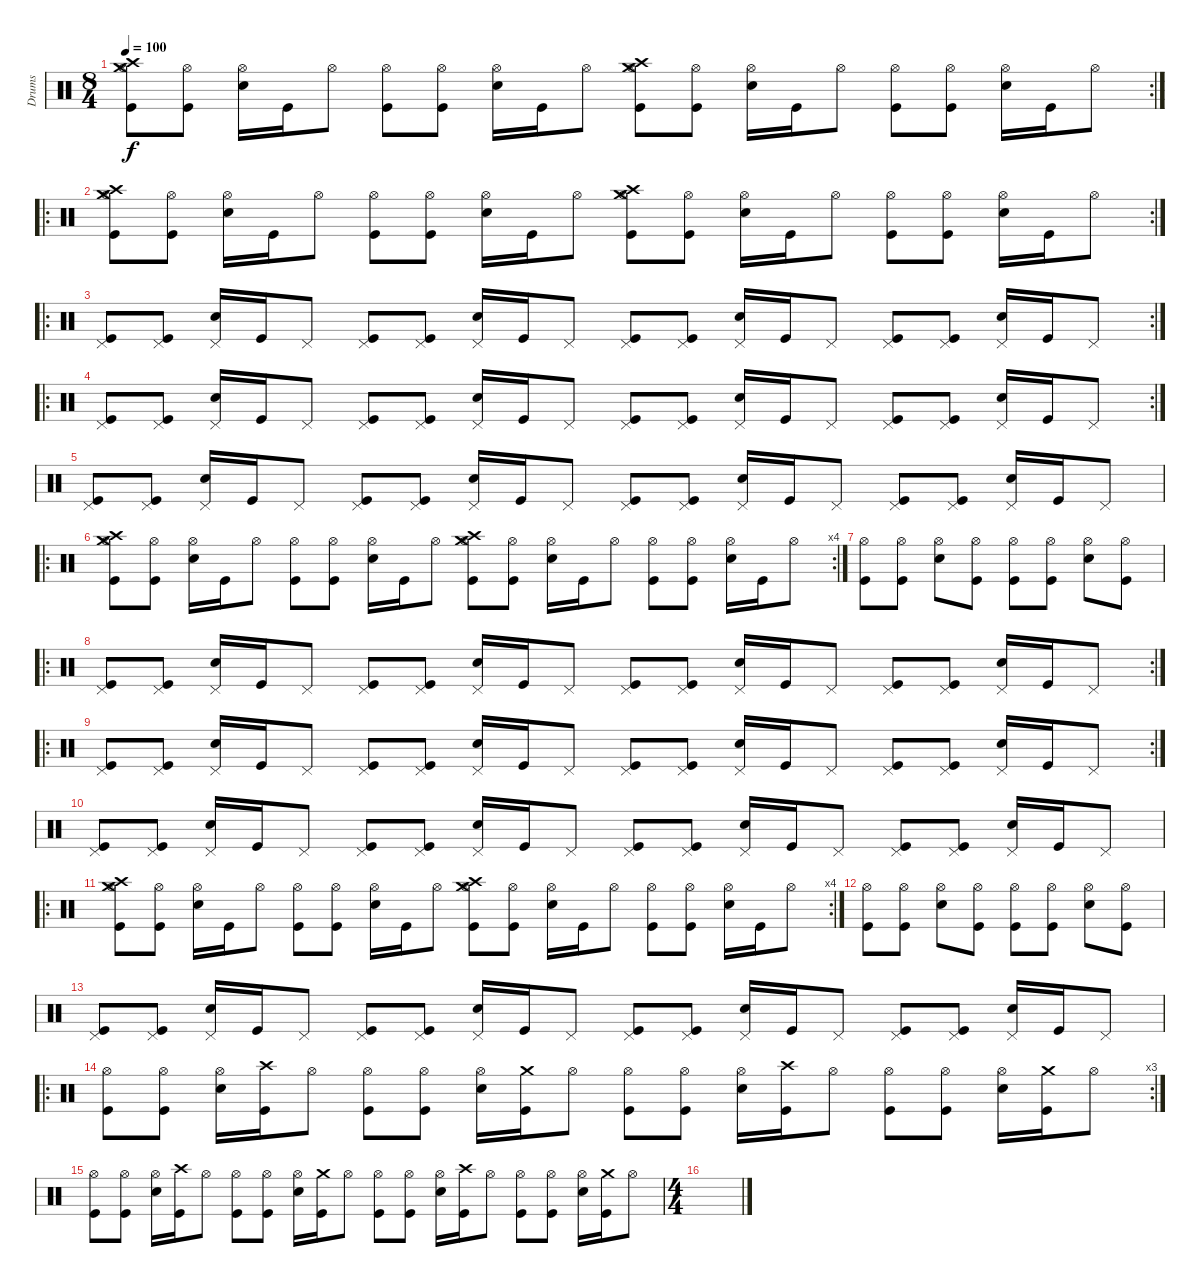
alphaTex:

\track ("Drums" "Drums") {instrument percussion}
\staff {score}
\articulation defaults
\rc 2
\ts (8 4)
\tempo 100
\clef neutral
\ks c
("Hi-Hat (open)" "Kick (hit)" "Crash high (hit)" "Crash medium (hit)").8{dy f} ("Hi-Hat (open)" "Kick (hit)").8 ("Hi-Hat (open)" "Snare (hit) 2").16 "Kick (hit)".16 "Hi-Hat (open)".8 ("Hi-Hat (open)" "Kick (hit)").8 ("Hi-Hat (open)" "Kick (hit)").8 ("Hi-Hat (open)" "Snare (hit) 2").16 "Kick (hit)".16 "Hi-Hat (open)".8 ("Hi-Hat (open)" "Kick (hit)" "Crash high (hit)" "Crash medium (hit)").8 ("Hi-Hat (open)" "Kick (hit)").8 ("Hi-Hat (open)" "Snare (hit) 2").16 "Kick (hit)".16 "Hi-Hat (open)".8 ("Hi-Hat (open)" "Kick (hit)").8 ("Hi-Hat (open)" "Kick (hit)").8 ("Hi-Hat (open)" "Snare (hit) 2").16 "Kick (hit)".16 "Hi-Hat (open)".8 |
\ro
\rc 2
("Hi-Hat (open)" "Kick (hit)" "Crash high (hit)" "Crash medium (hit)").8 ("Hi-Hat (open)" "Kick (hit)").8 ("Hi-Hat (open)" "Snare (hit) 2").16 "Kick (hit)".16 "Hi-Hat (open)".8 ("Hi-Hat (open)" "Kick (hit)").8 ("Hi-Hat (open)" "Kick (hit)").8 ("Hi-Hat (open)" "Snare (hit) 2").16 "Kick (hit)".16 "Hi-Hat (open)".8 ("Hi-Hat (open)" "Kick (hit)" "Crash high (hit)" "Crash medium (hit)").8 ("Hi-Hat (open)" "Kick (hit)").8 ("Hi-Hat (open)" "Snare (hit) 2").16 "Kick (hit)".16 "Hi-Hat (open)".8 ("Hi-Hat (open)" "Kick (hit)").8 ("Hi-Hat (open)" "Kick (hit)").8 ("Hi-Hat (open)" "Snare (hit) 2").16 "Kick (hit)".16 "Hi-Hat (open)".8 |
\ro
\rc 2
("Pedal Hi-Hat (hit)" "Kick (hit)").8 ("Pedal Hi-Hat (hit)" "Kick (hit)").8 ("Pedal Hi-Hat (hit)" "Snare (hit) 2").16 "Kick (hit)".16 "Pedal Hi-Hat (hit)".8 ("Pedal Hi-Hat (hit)" "Kick (hit)").8 ("Pedal Hi-Hat (hit)" "Kick (hit)").8 ("Pedal Hi-Hat (hit)" "Snare (hit) 2").16 "Kick (hit)".16 "Pedal Hi-Hat (hit)".8 ("Pedal Hi-Hat (hit)" "Kick (hit)").8 ("Pedal Hi-Hat (hit)" "Kick (hit)").8 ("Pedal Hi-Hat (hit)" "Snare (hit) 2").16 "Kick (hit)".16 "Pedal Hi-Hat (hit)".8 ("Pedal Hi-Hat (hit)" "Kick (hit)").8 ("Pedal Hi-Hat (hit)" "Kick (hit)").8 ("Pedal Hi-Hat (hit)" "Snare (hit) 2").16 "Kick (hit)".16 "Pedal Hi-Hat (hit)".8 |
\ro
\rc 2
("Pedal Hi-Hat (hit)" "Kick (hit)").8 ("Pedal Hi-Hat (hit)" "Kick (hit)").8 ("Pedal Hi-Hat (hit)" "Snare (hit) 2").16 "Kick (hit)".16 "Pedal Hi-Hat (hit)".8 ("Pedal Hi-Hat (hit)" "Kick (hit)").8 ("Pedal Hi-Hat (hit)" "Kick (hit)").8 ("Pedal Hi-Hat (hit)" "Snare (hit) 2").16 "Kick (hit)".16 "Pedal Hi-Hat (hit)".8 ("Pedal Hi-Hat (hit)" "Kick (hit)").8 ("Pedal Hi-Hat (hit)" "Kick (hit)").8 ("Pedal Hi-Hat (hit)" "Snare (hit) 2").16 "Kick (hit)".16 "Pedal Hi-Hat (hit)".8 ("Pedal Hi-Hat (hit)" "Kick (hit)").8 ("Pedal Hi-Hat (hit)" "Kick (hit)").8 ("Pedal Hi-Hat (hit)" "Snare (hit) 2").16 "Kick (hit)".16 "Pedal Hi-Hat (hit)".8 |
("Pedal Hi-Hat (hit)" "Kick (hit)").8 ("Pedal Hi-Hat (hit)" "Kick (hit)").8 ("Pedal Hi-Hat (hit)" "Snare (hit) 2").16 "Kick (hit)".16 "Pedal Hi-Hat (hit)".8 ("Pedal Hi-Hat (hit)" "Kick (hit)").8 ("Pedal Hi-Hat (hit)" "Kick (hit)").8 ("Pedal Hi-Hat (hit)" "Snare (hit) 2").16 "Kick (hit)".16 "Pedal Hi-Hat (hit)".8 ("Pedal Hi-Hat (hit)" "Kick (hit)").8 ("Pedal Hi-Hat (hit)" "Kick (hit)").8 ("Pedal Hi-Hat (hit)" "Snare (hit) 2").16 "Kick (hit)".16 "Pedal Hi-Hat (hit)".8 ("Pedal Hi-Hat (hit)" "Kick (hit)").8 ("Pedal Hi-Hat (hit)" "Kick (hit)").8 ("Pedal Hi-Hat (hit)" "Snare (hit) 2").16 "Kick (hit)".16 "Pedal Hi-Hat (hit)".8 |
\ro
\rc 4
("Hi-Hat (open)" "Kick (hit)" "Crash high (hit)" "Crash medium (hit)").8 ("Hi-Hat (open)" "Kick (hit)").8 ("Hi-Hat (open)" "Snare (hit) 2").16 "Kick (hit)".16 "Hi-Hat (open)".8 ("Hi-Hat (open)" "Kick (hit)").8 ("Hi-Hat (open)" "Kick (hit)").8 ("Hi-Hat (open)" "Snare (hit) 2").16 "Kick (hit)".16 "Hi-Hat (open)".8 ("Hi-Hat (open)" "Kick (hit)" "Crash high (hit)" "Crash medium (hit)").8 ("Hi-Hat (open)" "Kick (hit)").8 ("Hi-Hat (open)" "Snare (hit) 2").16 "Kick (hit)".16 "Hi-Hat (open)".8 ("Hi-Hat (open)" "Kick (hit)").8 ("Hi-Hat (open)" "Kick (hit)").8 ("Hi-Hat (open)" "Snare (hit) 2").16 "Kick (hit)".16 "Hi-Hat (open)".8 |
("Hi-Hat (open)" "Kick (hit)").8 ("Hi-Hat (open)" "Kick (hit)").8 ("Hi-Hat (open)" "Snare (hit) 2").8 ("Hi-Hat (open)" "Kick (hit)").8 ("Hi-Hat (open)" "Kick (hit)").8 ("Hi-Hat (open)" "Kick (hit)").8 ("Hi-Hat (open)" "Snare (hit) 2").8 ("Hi-Hat (open)" "Kick (hit)").8 |
\ro
\rc 2
("Pedal Hi-Hat (hit)" "Kick (hit)").8 ("Pedal Hi-Hat (hit)" "Kick (hit)").8 ("Pedal Hi-Hat (hit)" "Snare (hit) 2").16 "Kick (hit)".16 "Pedal Hi-Hat (hit)".8 ("Pedal Hi-Hat (hit)" "Kick (hit)").8 ("Pedal Hi-Hat (hit)" "Kick (hit)").8 ("Pedal Hi-Hat (hit)" "Snare (hit) 2").16 "Kick (hit)".16 "Pedal Hi-Hat (hit)".8 ("Pedal Hi-Hat (hit)" "Kick (hit)").8 ("Pedal Hi-Hat (hit)" "Kick (hit)").8 ("Pedal Hi-Hat (hit)" "Snare (hit) 2").16 "Kick (hit)".16 "Pedal Hi-Hat (hit)".8 ("Pedal Hi-Hat (hit)" "Kick (hit)").8 ("Pedal Hi-Hat (hit)" "Kick (hit)").8 ("Pedal Hi-Hat (hit)" "Snare (hit) 2").16 "Kick (hit)".16 "Pedal Hi-Hat (hit)".8 |
\ro
\rc 2
("Pedal Hi-Hat (hit)" "Kick (hit)").8 ("Pedal Hi-Hat (hit)" "Kick (hit)").8 ("Pedal Hi-Hat (hit)" "Snare (hit) 2").16 "Kick (hit)".16 "Pedal Hi-Hat (hit)".8 ("Pedal Hi-Hat (hit)" "Kick (hit)").8 ("Pedal Hi-Hat (hit)" "Kick (hit)").8 ("Pedal Hi-Hat (hit)" "Snare (hit) 2").16 "Kick (hit)".16 "Pedal Hi-Hat (hit)".8 ("Pedal Hi-Hat (hit)" "Kick (hit)").8 ("Pedal Hi-Hat (hit)" "Kick (hit)").8 ("Pedal Hi-Hat (hit)" "Snare (hit) 2").16 "Kick (hit)".16 "Pedal Hi-Hat (hit)".8 ("Pedal Hi-Hat (hit)" "Kick (hit)").8 ("Pedal Hi-Hat (hit)" "Kick (hit)").8 ("Pedal Hi-Hat (hit)" "Snare (hit) 2").16 "Kick (hit)".16 "Pedal Hi-Hat (hit)".8 |
("Pedal Hi-Hat (hit)" "Kick (hit)").8 ("Pedal Hi-Hat (hit)" "Kick (hit)").8 ("Pedal Hi-Hat (hit)" "Snare (hit) 2").16 "Kick (hit)".16 "Pedal Hi-Hat (hit)".8 ("Pedal Hi-Hat (hit)" "Kick (hit)").8 ("Pedal Hi-Hat (hit)" "Kick (hit)").8 ("Pedal Hi-Hat (hit)" "Snare (hit) 2").16 "Kick (hit)".16 "Pedal Hi-Hat (hit)".8 ("Pedal Hi-Hat (hit)" "Kick (hit)").8 ("Pedal Hi-Hat (hit)" "Kick (hit)").8 ("Pedal Hi-Hat (hit)" "Snare (hit) 2").16 "Kick (hit)".16 "Pedal Hi-Hat (hit)".8 ("Pedal Hi-Hat (hit)" "Kick (hit)").8 ("Pedal Hi-Hat (hit)" "Kick (hit)").8 ("Pedal Hi-Hat (hit)" "Snare (hit) 2").16 "Kick (hit)".16 "Pedal Hi-Hat (hit)".8 |
\ro
\rc 4
("Hi-Hat (open)" "Kick (hit)" "Crash high (hit)" "Crash medium (hit)").8 ("Hi-Hat (open)" "Kick (hit)").8 ("Hi-Hat (open)" "Snare (hit) 2").16 "Kick (hit)".16 "Hi-Hat (open)".8 ("Hi-Hat (open)" "Kick (hit)").8 ("Hi-Hat (open)" "Kick (hit)").8 ("Hi-Hat (open)" "Snare (hit) 2").16 "Kick (hit)".16 "Hi-Hat (open)".8 ("Hi-Hat (open)" "Kick (hit)" "Crash high (hit)" "Crash medium (hit)").8 ("Hi-Hat (open)" "Kick (hit)").8 ("Hi-Hat (open)" "Snare (hit) 2").16 "Kick (hit)".16 "Hi-Hat (open)".8 ("Hi-Hat (open)" "Kick (hit)").8 ("Hi-Hat (open)" "Kick (hit)").8 ("Hi-Hat (open)" "Snare (hit) 2").16 "Kick (hit)".16 "Hi-Hat (open)".8 |
("Hi-Hat (open)" "Kick (hit)").8 ("Hi-Hat (open)" "Kick (hit)").8 ("Hi-Hat (open)" "Snare (hit) 2").8 ("Hi-Hat (open)" "Kick (hit)").8 ("Hi-Hat (open)" "Kick (hit)").8 ("Hi-Hat (open)" "Kick (hit)").8 ("Hi-Hat (open)" "Snare (hit) 2").8 ("Hi-Hat (open)" "Kick (hit)").8 |
("Pedal Hi-Hat (hit)" "Kick (hit)").8 ("Pedal Hi-Hat (hit)" "Kick (hit)").8 ("Pedal Hi-Hat (hit)" "Snare (hit) 2").16 "Kick (hit)".16 "Pedal Hi-Hat (hit)".8 ("Pedal Hi-Hat (hit)" "Kick (hit)").8 ("Pedal Hi-Hat (hit)" "Kick (hit)").8 ("Pedal Hi-Hat (hit)" "Snare (hit) 2").16 "Kick (hit)".16 "Pedal Hi-Hat (hit)".8 ("Pedal Hi-Hat (hit)" "Kick (hit)").8 ("Pedal Hi-Hat (hit)" "Kick (hit)").8 ("Pedal Hi-Hat (hit)" "Snare (hit) 2").16 "Kick (hit)".16 "Pedal Hi-Hat (hit)".8 ("Pedal Hi-Hat (hit)" "Kick (hit)").8 ("Pedal Hi-Hat (hit)" "Kick (hit)").8 ("Pedal Hi-Hat (hit)" "Snare (hit) 2").16 "Kick (hit)".16 "Pedal Hi-Hat (hit)".8 |
\ro
\rc 3
("Hi-Hat (open)" "Kick (hit)").8 ("Hi-Hat (open)" "Kick (hit)").8 ("Hi-Hat (open)" "Snare (hit) 2").16 ("Crash high (hit)" "Kick (hit)").16 "Hi-Hat (open)".8 ("Hi-Hat (open)" "Kick (hit)").8 ("Hi-Hat (open)" "Kick (hit)").8 ("Hi-Hat (open)" "Snare (hit) 2").16 ("Crash medium (hit)" "Kick (hit)").16 "Hi-Hat (open)".8 ("Hi-Hat (open)" "Kick (hit)").8 ("Hi-Hat (open)" "Kick (hit)").8 ("Hi-Hat (open)" "Snare (hit) 2").16 ("Crash high (hit)" "Kick (hit)").16 "Hi-Hat (open)".8 ("Hi-Hat (open)" "Kick (hit)").8 ("Hi-Hat (open)" "Kick (hit)").8 ("Hi-Hat (open)" "Snare (hit) 2").16 ("Crash medium (hit)" "Kick (hit)").16 "Hi-Hat (open)".8 |
("Hi-Hat (open)" "Kick (hit)").8 ("Hi-Hat (open)" "Kick (hit)").8 ("Hi-Hat (open)" "Snare (hit) 2").16 ("Crash high (hit)" "Kick (hit)").16 "Hi-Hat (open)".8 ("Hi-Hat (open)" "Kick (hit)").8 ("Hi-Hat (open)" "Kick (hit)").8 ("Hi-Hat (open)" "Snare (hit) 2").16 ("Crash medium (hit)" "Kick (hit)").16 "Hi-Hat (open)".8 ("Hi-Hat (open)" "Kick (hit)").8 ("Hi-Hat (open)" "Kick (hit)").8 ("Hi-Hat (open)" "Snare (hit) 2").16 ("Crash high (hit)" "Kick (hit)").16 "Hi-Hat (open)".8 ("Hi-Hat (open)" "Kick (hit)").8 ("Hi-Hat (open)" "Kick (hit)").8 ("Hi-Hat (open)" "Snare (hit) 2").16 ("Crash medium (hit)" "Kick (hit)").16 "Hi-Hat (open)".8 |
\ts (4 4)
